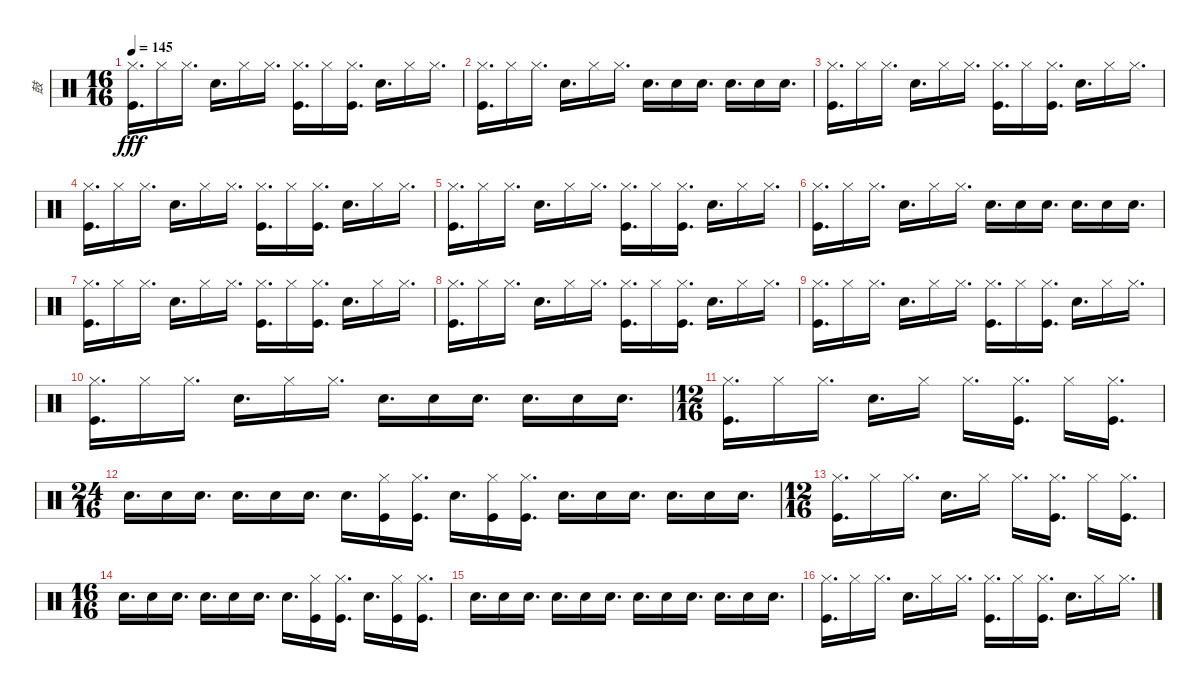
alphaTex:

\track ("鼓" "鼓") {instrument percussion}
\staff {score}
\articulation defaults
\ts (16 16)
\tempo 145
\clef neutral
\ks c
("Hi-Hat (closed)" "Kick (hit)").16{d dy fff} "Hi-Hat (closed)".16 "Hi-Hat (closed)".16{d} "Snare (hit) 2".16{d} "Hi-Hat (closed)".16 "Hi-Hat (closed)".16{d} ("Hi-Hat (closed)" "Kick (hit)").16{d} "Hi-Hat (closed)".16 ("Hi-Hat (closed)" "Kick (hit)").16{d} "Snare (hit) 2".16{d} "Hi-Hat (closed)".16 "Hi-Hat (closed)".16{d} |
("Hi-Hat (closed)" "Kick (hit)").16{d} "Hi-Hat (closed)".16 "Hi-Hat (closed)".16{d} "Snare (hit) 2".16{d} "Hi-Hat (closed)".16 "Hi-Hat (closed)".16{d} "Snare (hit) 2".16{d} "Snare (hit) 2".16 "Snare (hit) 2".16{d} "Snare (hit) 2".16{d} "Snare (hit) 2".16 "Snare (hit) 2".16{d} |
("Hi-Hat (closed)" "Kick (hit)").16{d} "Hi-Hat (closed)".16 "Hi-Hat (closed)".16{d} "Snare (hit) 2".16{d} "Hi-Hat (closed)".16 "Hi-Hat (closed)".16{d} ("Hi-Hat (closed)" "Kick (hit)").16{d} "Hi-Hat (closed)".16 ("Hi-Hat (closed)" "Kick (hit)").16{d} "Snare (hit) 2".16{d} "Hi-Hat (closed)".16 "Hi-Hat (closed)".16{d} |
("Hi-Hat (closed)" "Kick (hit)").16{d} "Hi-Hat (closed)".16 "Hi-Hat (closed)".16{d} "Snare (hit) 2".16{d} "Hi-Hat (closed)".16 "Hi-Hat (closed)".16{d} ("Hi-Hat (closed)" "Kick (hit)").16{d} "Hi-Hat (closed)".16 ("Hi-Hat (closed)" "Kick (hit)").16{d} "Snare (hit) 2".16{d} "Hi-Hat (closed)".16 "Hi-Hat (closed)".16{d} |
("Hi-Hat (closed)" "Kick (hit)").16{d} "Hi-Hat (closed)".16 "Hi-Hat (closed)".16{d} "Snare (hit) 2".16{d} "Hi-Hat (closed)".16 "Hi-Hat (closed)".16{d} ("Hi-Hat (closed)" "Kick (hit)").16{d} "Hi-Hat (closed)".16 ("Hi-Hat (closed)" "Kick (hit)").16{d} "Snare (hit) 2".16{d} "Hi-Hat (closed)".16 "Hi-Hat (closed)".16{d} |
("Hi-Hat (closed)" "Kick (hit)").16{d} "Hi-Hat (closed)".16 "Hi-Hat (closed)".16{d} "Snare (hit) 2".16{d} "Hi-Hat (closed)".16 "Hi-Hat (closed)".16{d} "Snare (hit) 2".16{d} "Snare (hit) 2".16 "Snare (hit) 2".16{d} "Snare (hit) 2".16{d} "Snare (hit) 2".16 "Snare (hit) 2".16{d} |
("Hi-Hat (closed)" "Kick (hit)").16{d} "Hi-Hat (closed)".16 "Hi-Hat (closed)".16{d} "Snare (hit) 2".16{d} "Hi-Hat (closed)".16 "Hi-Hat (closed)".16{d} ("Hi-Hat (closed)" "Kick (hit)").16{d} "Hi-Hat (closed)".16 ("Hi-Hat (closed)" "Kick (hit)").16{d} "Snare (hit) 2".16{d} "Hi-Hat (closed)".16 "Hi-Hat (closed)".16{d} |
("Hi-Hat (closed)" "Kick (hit)").16{d} "Hi-Hat (closed)".16 "Hi-Hat (closed)".16{d} "Snare (hit) 2".16{d} "Hi-Hat (closed)".16 "Hi-Hat (closed)".16{d} ("Hi-Hat (closed)" "Kick (hit)").16{d} "Hi-Hat (closed)".16 ("Hi-Hat (closed)" "Kick (hit)").16{d} "Snare (hit) 2".16{d} "Hi-Hat (closed)".16 "Hi-Hat (closed)".16{d} |
("Hi-Hat (closed)" "Kick (hit)").16{d} "Hi-Hat (closed)".16 "Hi-Hat (closed)".16{d} "Snare (hit) 2".16{d} "Hi-Hat (closed)".16 "Hi-Hat (closed)".16{d} ("Hi-Hat (closed)" "Kick (hit)").16{d} "Hi-Hat (closed)".16 ("Hi-Hat (closed)" "Kick (hit)").16{d} "Snare (hit) 2".16{d} "Hi-Hat (closed)".16 "Hi-Hat (closed)".16{d} |
("Hi-Hat (closed)" "Kick (hit)").16{d} "Hi-Hat (closed)".16 "Hi-Hat (closed)".16{d} "Snare (hit) 2".16{d} "Hi-Hat (closed)".16 "Hi-Hat (closed)".16{d} "Snare (hit) 2".16{d} "Snare (hit) 2".16 "Snare (hit) 2".16{d} "Snare (hit) 2".16{d} "Snare (hit) 2".16 "Snare (hit) 2".16{d} |
\ts (12 16)
("Hi-Hat (closed)" "Kick (hit)").16{d} "Hi-Hat (closed)".16 "Hi-Hat (closed)".16{d} "Snare (hit) 2".16{d} "Hi-Hat (closed)".16 "Hi-Hat (closed)".16{d} ("Hi-Hat (closed)" "Kick (hit)").16{d} "Hi-Hat (closed)".16 ("Hi-Hat (closed)" "Kick (hit)").16{d} |
\ts (24 16)
"Snare (hit) 2".16{d} "Snare (hit) 2".16 "Snare (hit) 2".16{d} "Snare (hit) 2".16{d} "Snare (hit) 2".16 "Snare (hit) 2".16{d} "Snare (hit) 2".16{d} ("Hi-Hat (closed)" "Kick (hit)").16 ("Hi-Hat (closed)" "Kick (hit)").16{d} "Snare (hit) 2".16{d} ("Hi-Hat (closed)" "Kick (hit)").16 ("Hi-Hat (closed)" "Kick (hit)").16{d} "Snare (hit) 2".16{d} "Snare (hit) 2".16 "Snare (hit) 2".16{d} "Snare (hit) 2".16{d} "Snare (hit) 2".16 "Snare (hit) 2".16{d} |
\ts (12 16)
("Hi-Hat (closed)" "Kick (hit)").16{d} "Hi-Hat (closed)".16 "Hi-Hat (closed)".16{d} "Snare (hit) 2".16{d} "Hi-Hat (closed)".16 "Hi-Hat (closed)".16{d} ("Hi-Hat (closed)" "Kick (hit)").16{d} "Hi-Hat (closed)".16 ("Hi-Hat (closed)" "Kick (hit)").16{d} |
\ts (16 16)
"Snare (hit) 2".16{d} "Snare (hit) 2".16 "Snare (hit) 2".16{d} "Snare (hit) 2".16{d} "Snare (hit) 2".16 "Snare (hit) 2".16{d} "Snare (hit) 2".16{d} ("Hi-Hat (closed)" "Kick (hit)").16 ("Hi-Hat (closed)" "Kick (hit)").16{d} "Snare (hit) 2".16{d} ("Hi-Hat (closed)" "Kick (hit)").16 ("Hi-Hat (closed)" "Kick (hit)").16{d} |
"Snare (hit) 2".16{d} "Snare (hit) 2".16 "Snare (hit) 2".16{d} "Snare (hit) 2".16{d} "Snare (hit) 2".16 "Snare (hit) 2".16{d} "Snare (hit) 2".16{d} "Snare (hit) 2".16 "Snare (hit) 2".16{d} "Snare (hit) 2".16{d} "Snare (hit) 2".16 "Snare (hit) 2".16{d} |
("Hi-Hat (closed)" "Kick (hit)").16{d} "Hi-Hat (closed)".16 "Hi-Hat (closed)".16{d} "Snare (hit) 2".16{d} "Hi-Hat (closed)".16 "Hi-Hat (closed)".16{d} ("Hi-Hat (closed)" "Kick (hit)").16{d} "Hi-Hat (closed)".16 ("Hi-Hat (closed)" "Kick (hit)").16{d} "Snare (hit) 2".16{d} "Hi-Hat (closed)".16 "Hi-Hat (closed)".16{d}
